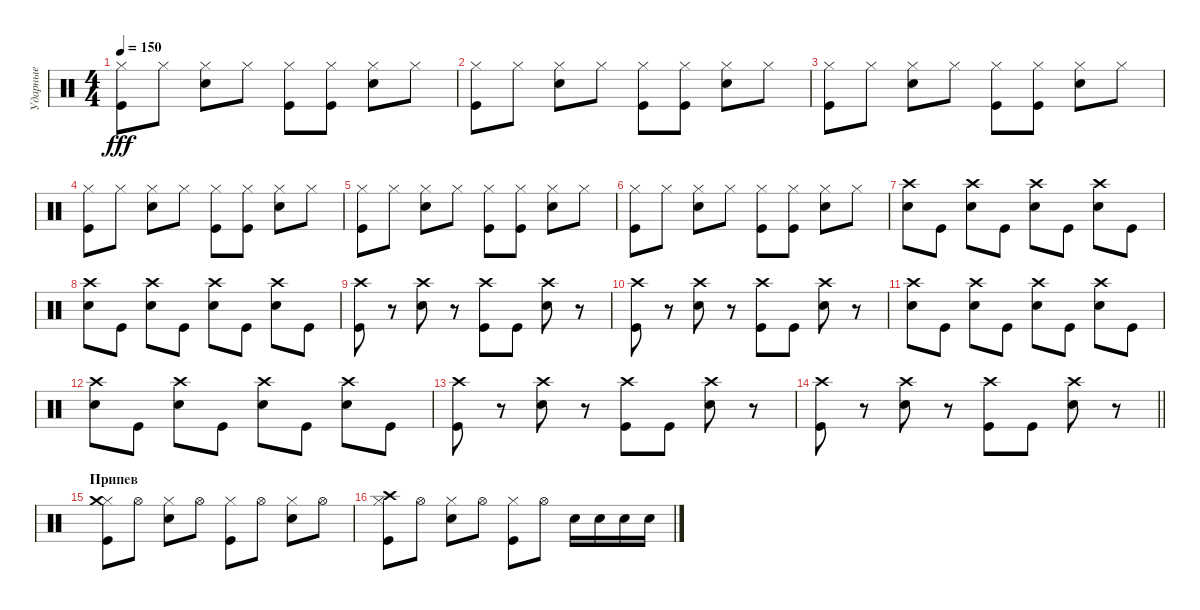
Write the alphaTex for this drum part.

\track ("Ударные" "Ударные") {instrument percussion}
\staff {score}
\articulation defaults
\ts (4 4)
\tempo 150
\clef neutral
\ks c
("Hi-Hat (closed)" "Kick (hit)").8{dy fff} "Hi-Hat (closed)".8 ("Hi-Hat (closed)" "Electric Snare (hit)").8 "Hi-Hat (closed)".8 ("Hi-Hat (closed)" "Kick (hit)").8 ("Hi-Hat (closed)" "Kick (hit)").8 ("Hi-Hat (closed)" "Electric Snare (hit)").8 "Hi-Hat (closed)".8 |
("Hi-Hat (closed)" "Kick (hit)").8 "Hi-Hat (closed)".8 ("Hi-Hat (closed)" "Electric Snare (hit)").8 "Hi-Hat (closed)".8 ("Hi-Hat (closed)" "Kick (hit)").8 ("Hi-Hat (closed)" "Kick (hit)").8 ("Hi-Hat (closed)" "Electric Snare (hit)").8 "Hi-Hat (closed)".8 |
("Hi-Hat (closed)" "Kick (hit)").8 "Hi-Hat (closed)".8 ("Hi-Hat (closed)" "Electric Snare (hit)").8 "Hi-Hat (closed)".8 ("Hi-Hat (closed)" "Kick (hit)").8 ("Hi-Hat (closed)" "Kick (hit)").8 ("Hi-Hat (closed)" "Electric Snare (hit)").8 "Hi-Hat (closed)".8 |
("Hi-Hat (closed)" "Kick (hit)").8 "Hi-Hat (closed)".8 ("Hi-Hat (closed)" "Electric Snare (hit)").8 "Hi-Hat (closed)".8 ("Hi-Hat (closed)" "Kick (hit)").8 ("Hi-Hat (closed)" "Kick (hit)").8 ("Hi-Hat (closed)" "Electric Snare (hit)").8 "Hi-Hat (closed)".8 |
("Hi-Hat (closed)" "Kick (hit)").8 "Hi-Hat (closed)".8 ("Hi-Hat (closed)" "Electric Snare (hit)").8 "Hi-Hat (closed)".8 ("Hi-Hat (closed)" "Kick (hit)").8 ("Hi-Hat (closed)" "Kick (hit)").8 ("Hi-Hat (closed)" "Electric Snare (hit)").8 "Hi-Hat (closed)".8 |
("Hi-Hat (closed)" "Kick (hit)").8 "Hi-Hat (closed)".8 ("Hi-Hat (closed)" "Electric Snare (hit)").8 "Hi-Hat (closed)".8 ("Hi-Hat (closed)" "Kick (hit)").8 ("Hi-Hat (closed)" "Kick (hit)").8 ("Hi-Hat (closed)" "Electric Snare (hit)").8 "Hi-Hat (closed)".8 |
("Crash high (hit)" "Electric Snare (hit)").8 "Kick (hit)".8 ("Crash high (hit)" "Electric Snare (hit)").8 "Kick (hit)".8 ("Crash high (hit)" "Electric Snare (hit)").8 "Kick (hit)".8 ("Crash high (hit)" "Electric Snare (hit)").8 "Kick (hit)".8 |
("Crash high (hit)" "Electric Snare (hit)").8 "Kick (hit)".8 ("Crash high (hit)" "Electric Snare (hit)").8 "Kick (hit)".8 ("Crash high (hit)" "Electric Snare (hit)").8 "Kick (hit)".8 ("Crash high (hit)" "Electric Snare (hit)").8 "Kick (hit)".8 |
("Crash high (hit)" "Kick (hit)").8 r.8 ("Crash high (hit)" "Electric Snare (hit)").8 r.8 ("Crash high (hit)" "Kick (hit)").8 "Kick (hit)".8 ("Crash high (hit)" "Electric Snare (hit)").8 r.8 |
("Crash high (hit)" "Kick (hit)").8 r.8 ("Crash high (hit)" "Electric Snare (hit)").8 r.8 ("Crash high (hit)" "Kick (hit)").8 "Kick (hit)".8 ("Crash high (hit)" "Electric Snare (hit)").8 r.8 |
("Crash high (hit)" "Electric Snare (hit)").8 "Kick (hit)".8 ("Crash high (hit)" "Electric Snare (hit)").8 "Kick (hit)".8 ("Crash high (hit)" "Electric Snare (hit)").8 "Kick (hit)".8 ("Crash high (hit)" "Electric Snare (hit)").8 "Kick (hit)".8 |
("Crash high (hit)" "Electric Snare (hit)").8 "Kick (hit)".8 ("Crash high (hit)" "Electric Snare (hit)").8 "Kick (hit)".8 ("Crash high (hit)" "Electric Snare (hit)").8 "Kick (hit)".8 ("Crash high (hit)" "Electric Snare (hit)").8 "Kick (hit)".8 |
("Crash high (hit)" "Kick (hit)").8 r.8 ("Crash high (hit)" "Electric Snare (hit)").8 r.8 ("Crash high (hit)" "Kick (hit)").8 "Kick (hit)".8 ("Crash high (hit)" "Electric Snare (hit)").8 r.8 |
\barLineRight lightlight
("Crash high (hit)" "Kick (hit)").8 r.8 ("Crash high (hit)" "Electric Snare (hit)").8 r.8 ("Crash high (hit)" "Kick (hit)").8 "Kick (hit)".8 ("Crash high (hit)" "Electric Snare (hit)").8 r.8 |
\section ("" "Припев")
("Hi-Hat (closed)" "Kick (hit)" "Crash medium (hit)").8 "Hi-Hat (open)".8 ("Hi-Hat (closed)" "Electric Snare (hit)").8 "Hi-Hat (open)".8 ("Hi-Hat (closed)" "Kick (hit)").8 "Hi-Hat (open)".8 ("Hi-Hat (closed)" "Electric Snare (hit)").8 "Hi-Hat (open)".8 |
("Hi-Hat (closed)" "Kick (hit)" "Crash high (hit)").8 "Hi-Hat (open)".8 ("Hi-Hat (closed)" "Electric Snare (hit)").8 "Hi-Hat (open)".8 ("Hi-Hat (closed)" "Kick (hit)").8 "Hi-Hat (open)".8 "Electric Snare (hit)".16 "Electric Snare (hit)".16 "Electric Snare (hit)".16 "Electric Snare (hit)".16
